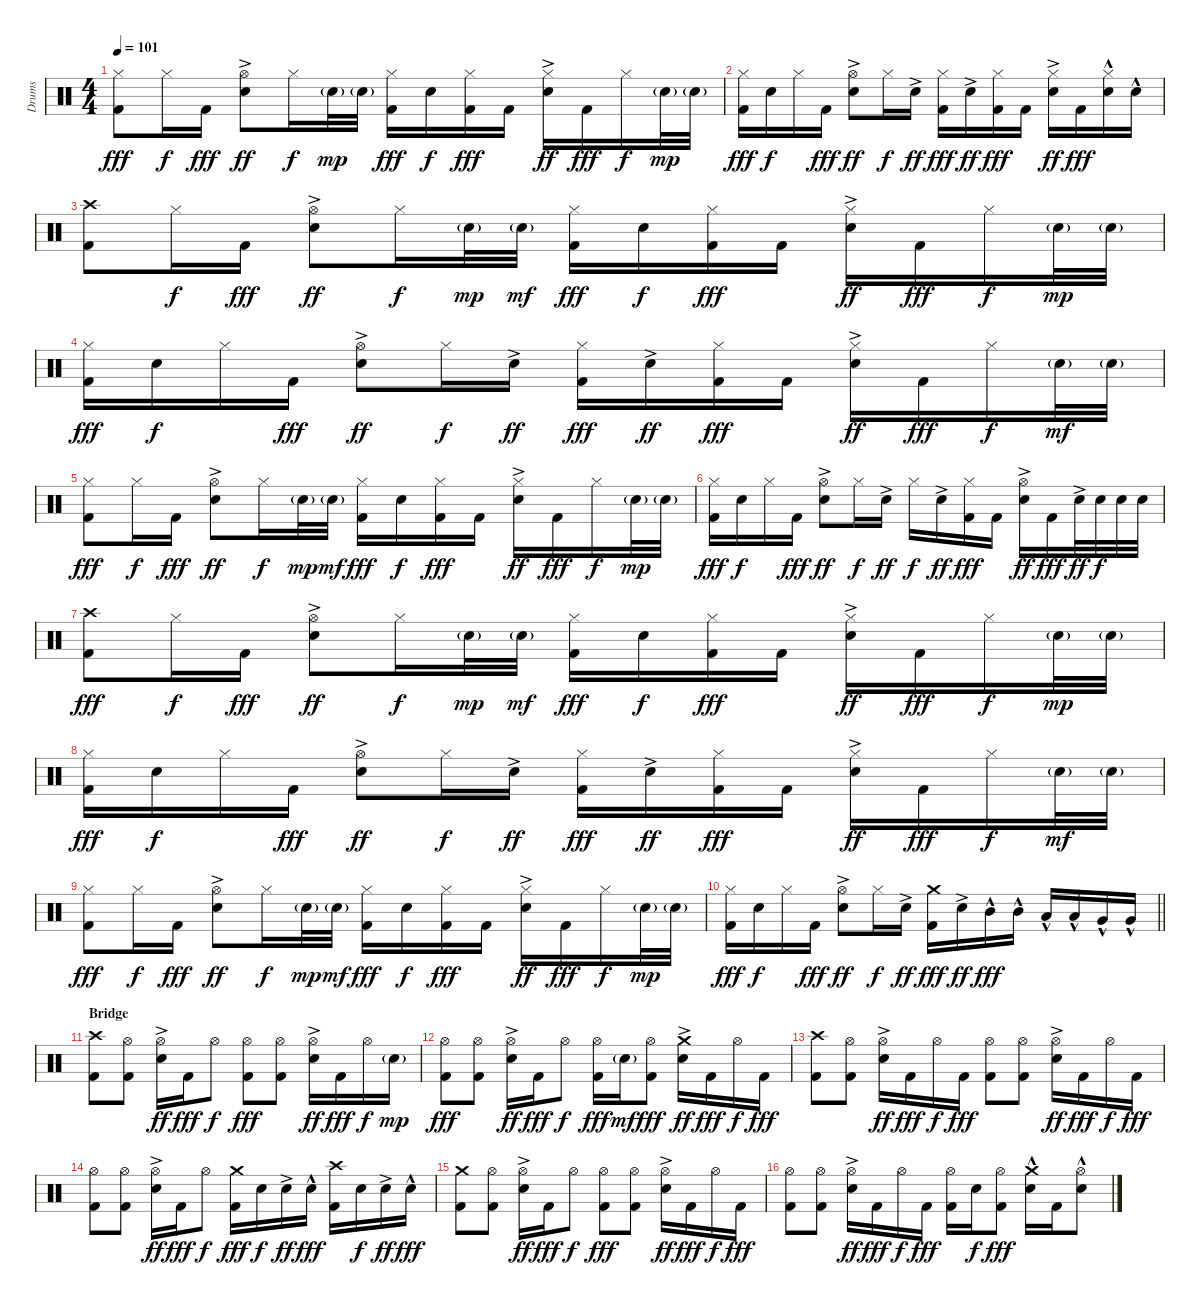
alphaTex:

\track ("Drums" "Drums") {instrument percussion}
\staff {score}
\articulation defaults
\ts (4 4)
\tempo 101
\clef neutral
\ks c
("Hi-Hat (closed)" "Kick (hit) 2").8{dy fff} "Hi-Hat (closed)".16{dy f} "Kick (hit) 2".16{dy fff} ("Hi-Hat (open)" "Snare (hit) 2"{ac}).8{dy ff} "Hi-Hat (closed)".16{dy f} "Snare (hit) 2"{g}.32{dy mp} "Snare (hit) 2"{g}.32 ("Hi-Hat (closed)" "Kick (hit) 2").16{dy fff} "Snare (hit) 2".16{dy f} ("Hi-Hat (closed)" "Kick (hit) 2").16{dy fff} "Kick (hit) 2".16 ("Hi-Hat (closed)" "Snare (hit) 2"{ac}).16{dy ff} "Kick (hit) 2".16{dy fff} "Hi-Hat (closed)".16{dy f} "Snare (hit) 2"{g}.32{dy mp} "Snare (hit) 2"{g}.32 |
("Hi-Hat (closed)" "Kick (hit) 2").16{dy fff} "Snare (hit) 2".16{dy f} "Hi-Hat (closed)".16 "Kick (hit) 2".16{dy fff} ("Hi-Hat (open)" "Snare (hit) 2"{ac}).8{dy ff} "Hi-Hat (closed)".16{dy f} "Snare (hit) 2"{ac}.16{dy ff} ("Hi-Hat (closed)" "Kick (hit) 2").16{dy fff} "Snare (hit) 2"{ac}.16{dy ff} ("Hi-Hat (closed)" "Kick (hit) 2").16{dy fff} "Kick (hit) 2".16 ("Hi-Hat (closed)" "Snare (hit) 2"{ac}).16{dy ff} "Kick (hit) 2".16{dy fff} ("Hi-Hat (closed)" "Snare (hit) 2"{hac}).16 "Snare (hit) 2"{hac}.16 |
("Crash high (hit)" "Kick (hit) 2").8 "Hi-Hat (closed)".16{dy f} "Kick (hit) 2".16{dy fff} ("Hi-Hat (open)" "Snare (hit) 2"{ac}).8{dy ff} "Hi-Hat (closed)".16{dy f} "Snare (hit) 2"{g}.32{dy mp} "Snare (hit) 2"{g}.32{dy mf} ("Hi-Hat (closed)" "Kick (hit) 2").16{dy fff} "Snare (hit) 2".16{dy f} ("Hi-Hat (closed)" "Kick (hit) 2").16{dy fff} "Kick (hit) 2".16 ("Hi-Hat (closed)" "Snare (hit) 2"{ac}).16{dy ff} "Kick (hit) 2".16{dy fff} "Hi-Hat (closed)".16{dy f} "Snare (hit) 2"{g}.32{dy mp} "Snare (hit) 2"{g}.32 |
("Hi-Hat (closed)" "Kick (hit) 2").16{dy fff} "Snare (hit) 2".16{dy f} "Hi-Hat (closed)".16 "Kick (hit) 2".16{dy fff} ("Hi-Hat (open)" "Snare (hit) 2"{ac}).8{dy ff} "Hi-Hat (closed)".16{dy f} "Snare (hit) 2"{ac}.16{dy ff} ("Hi-Hat (closed)" "Kick (hit) 2").16{dy fff} "Snare (hit) 2"{ac}.16{dy ff} ("Hi-Hat (closed)" "Kick (hit) 2").16{dy fff} "Kick (hit) 2".16 ("Hi-Hat (closed)" "Snare (hit) 2"{ac}).16{dy ff} "Kick (hit) 2".16{dy fff} "Hi-Hat (closed)".16{dy f} "Snare (hit) 2"{g}.32{dy mf} "Snare (hit) 2"{g}.32 |
("Hi-Hat (closed)" "Kick (hit) 2").8{dy fff} "Hi-Hat (closed)".16{dy f} "Kick (hit) 2".16{dy fff} ("Hi-Hat (open)" "Snare (hit) 2"{ac}).8{dy ff} "Hi-Hat (closed)".16{dy f} "Snare (hit) 2"{g}.32{dy mp} "Snare (hit) 2"{g}.32{dy mf} ("Hi-Hat (closed)" "Kick (hit) 2").16{dy fff} "Snare (hit) 2".16{dy f} ("Hi-Hat (closed)" "Kick (hit) 2").16{dy fff} "Kick (hit) 2".16 ("Hi-Hat (closed)" "Snare (hit) 2"{ac}).16{dy ff} "Kick (hit) 2".16{dy fff} "Hi-Hat (closed)".16{dy f} "Snare (hit) 2"{g}.32{dy mp} "Snare (hit) 2"{g}.32 |
("Hi-Hat (closed)" "Kick (hit) 2").16{dy fff} "Snare (hit) 2".16{dy f} "Hi-Hat (closed)".16 "Kick (hit) 2".16{dy fff} ("Hi-Hat (open)" "Snare (hit) 2"{ac}).8{dy ff} "Hi-Hat (closed)".16{dy f} "Snare (hit) 2"{ac}.16{dy ff} "Hi-Hat (closed)".16{dy f} "Snare (hit) 2"{ac}.16{dy ff} ("Hi-Hat (closed)" "Kick (hit) 2").16{dy fff} "Kick (hit) 2".16 ("Hi-Hat (open)" "Snare (hit) 2"{ac}).16{dy ff} "Kick (hit) 2".16{dy fff} "Snare (hit) 2"{ac}.32{dy ff} "Snare (hit) 2".32{dy f} "Snare (hit) 2".32 "Snare (hit) 2".32 |
("Crash high (hit)" "Kick (hit) 2").8{dy fff} "Hi-Hat (closed)".16{dy f} "Kick (hit) 2".16{dy fff} ("Hi-Hat (open)" "Snare (hit) 2"{ac}).8{dy ff} "Hi-Hat (closed)".16{dy f} "Snare (hit) 2"{g}.32{dy mp} "Snare (hit) 2"{g}.32{dy mf} ("Hi-Hat (closed)" "Kick (hit) 2").16{dy fff} "Snare (hit) 2".16{dy f} ("Hi-Hat (closed)" "Kick (hit) 2").16{dy fff} "Kick (hit) 2".16 ("Hi-Hat (closed)" "Snare (hit) 2"{ac}).16{dy ff} "Kick (hit) 2".16{dy fff} "Hi-Hat (closed)".16{dy f} "Snare (hit) 2"{g}.32{dy mp} "Snare (hit) 2"{g}.32 |
("Hi-Hat (closed)" "Kick (hit) 2").16{dy fff} "Snare (hit) 2".16{dy f} "Hi-Hat (closed)".16 "Kick (hit) 2".16{dy fff} ("Hi-Hat (open)" "Snare (hit) 2"{ac}).8{dy ff} "Hi-Hat (closed)".16{dy f} "Snare (hit) 2"{ac}.16{dy ff} ("Hi-Hat (closed)" "Kick (hit) 2").16{dy fff} "Snare (hit) 2"{ac}.16{dy ff} ("Hi-Hat (closed)" "Kick (hit) 2").16{dy fff} "Kick (hit) 2".16 ("Hi-Hat (closed)" "Snare (hit) 2"{ac}).16{dy ff} "Kick (hit) 2".16{dy fff} "Hi-Hat (closed)".16{dy f} "Snare (hit) 2"{g}.32{dy mf} "Snare (hit) 2"{g}.32 |
("Hi-Hat (closed)" "Kick (hit) 2").8{dy fff} "Hi-Hat (closed)".16{dy f} "Kick (hit) 2".16{dy fff} ("Hi-Hat (open)" "Snare (hit) 2"{ac}).8{dy ff} "Hi-Hat (closed)".16{dy f} "Snare (hit) 2"{g}.32{dy mp} "Snare (hit) 2"{g}.32{dy mf} ("Hi-Hat (closed)" "Kick (hit) 2").16{dy fff} "Snare (hit) 2".16{dy f} ("Hi-Hat (closed)" "Kick (hit) 2").16{dy fff} "Kick (hit) 2".16 ("Hi-Hat (closed)" "Snare (hit) 2"{ac}).16{dy ff} "Kick (hit) 2".16{dy fff} "Hi-Hat (closed)".16{dy f} "Snare (hit) 2"{g}.32{dy mp} "Snare (hit) 2"{g}.32 |
\barLineRight lightlight
("Hi-Hat (closed)" "Kick (hit) 2").16{dy fff} "Snare (hit) 2".16{dy f} "Hi-Hat (closed)".16 "Kick (hit) 2".16{dy fff} ("Hi-Hat (open)" "Snare (hit) 2"{ac}).8{dy ff} "Hi-Hat (closed)".16{dy f} "Snare (hit) 2"{ac}.16{dy ff} ("Crash medium (hit)" "Kick (hit) 2").16{dy fff} "Snare (hit) 2"{ac}.16{dy ff} "Mid Tom (hit)"{hac}.16{dy fff} "Mid Tom (hit)"{hac}.16 "Low Tom (hit)"{hac}.16 "Low Tom (hit)"{hac}.16 "Very Low Tom (hit)"{hac}.16 "Very Low Tom (hit)"{hac}.16 |
\section ("" "Bridge")
("Crash high (hit)" "Kick (hit) 2").8 ("Hi-Hat (open)" "Kick (hit) 2").8 ("Hi-Hat (open)" "Snare (hit) 2"{ac}).16{dy ff} "Kick (hit) 2".16{dy fff} "Hi-Hat (open)".8{dy f} ("Hi-Hat (open)" "Kick (hit) 2").8{dy fff} ("Hi-Hat (open)" "Kick (hit) 2").8 ("Hi-Hat (open)" "Snare (hit) 2"{ac}).16{dy ff} "Kick (hit) 2".16{dy fff} "Hi-Hat (open)".16{dy f} "Snare (hit) 2"{g}.16{dy mp} |
("Hi-Hat (open)" "Kick (hit) 2").8{dy fff} ("Hi-Hat (open)" "Kick (hit) 2").8 ("Hi-Hat (open)" "Snare (hit) 2"{ac}).16{dy ff} "Kick (hit) 2".16{dy fff} "Hi-Hat (open)".8{dy f} ("Hi-Hat (open)" "Kick (hit) 2").16{dy fff} "Snare (hit) 2"{g}.16{dy mf} ("Hi-Hat (open)" "Kick (hit) 2").8{dy fff} ("Crash medium (hit)" "Snare (hit) 2"{ac}).16{dy ff} "Kick (hit) 2".16{dy fff} "Hi-Hat (open)".16{dy f} "Kick (hit) 2".16{dy fff} |
("Crash high (hit)" "Kick (hit) 2").8 ("Hi-Hat (open)" "Kick (hit) 2").8 ("Hi-Hat (open)" "Snare (hit) 2"{ac}).16{dy ff} "Kick (hit) 2".16{dy fff} "Hi-Hat (open)".16{dy f} "Kick (hit) 2".16{dy fff} ("Hi-Hat (open)" "Kick (hit) 2").8 ("Hi-Hat (open)" "Kick (hit) 2").8 ("Hi-Hat (open)" "Snare (hit) 2"{ac}).16{dy ff} "Kick (hit) 2".16{dy fff} "Hi-Hat (open)".16{dy f} "Kick (hit) 2".16{dy fff} |
("Hi-Hat (open)" "Kick (hit) 2").8 ("Hi-Hat (open)" "Kick (hit) 2").8 ("Hi-Hat (open)" "Snare (hit) 2"{ac}).16{dy ff} "Kick (hit) 2".16{dy fff} "Hi-Hat (open)".8{dy f} ("Crash medium (hit)" "Kick (hit) 2").16{dy fff} "Snare (hit) 2".16{dy f} "Snare (hit) 2"{ac}.16{dy ff} "Snare (hit) 2"{hac}.16{dy fff} ("Crash high (hit)" "Kick (hit) 2").16 "Snare (hit) 2".16{dy f} "Snare (hit) 2"{ac}.16{dy ff} "Snare (hit) 2"{hac}.16{dy fff} |
("Crash medium (hit)" "Kick (hit) 2").8 ("Hi-Hat (open)" "Kick (hit) 2").8 ("Hi-Hat (open)" "Snare (hit) 2"{ac}).16{dy ff} "Kick (hit) 2".16{dy fff} "Hi-Hat (open)".8{dy f} ("Hi-Hat (open)" "Kick (hit) 2").8{dy fff} ("Hi-Hat (open)" "Kick (hit) 2").8 ("Hi-Hat (open)" "Snare (hit) 2"{ac}).16{dy ff} "Kick (hit) 2".16{dy fff} "Hi-Hat (open)".16{dy f} "Kick (hit) 2".16{dy fff} |
("Hi-Hat (open)" "Kick (hit) 2").8 ("Hi-Hat (open)" "Kick (hit) 2").8 ("Hi-Hat (open)" "Snare (hit) 2"{ac}).16{dy ff} "Kick (hit) 2".16{dy fff} "Hi-Hat (open)".16{dy f} "Kick (hit) 2".16{dy fff} ("Hi-Hat (open)" "Kick (hit) 2").16 "Snare (hit) 2".16{dy f} ("Hi-Hat (open)" "Kick (hit) 2").8{dy fff} ("Crash medium (hit)" "Snare (hit) 2"{hac}).16 "Kick (hit) 2".16 ("Hi-Hat (open)" "Snare (hit) 2"{hac}).8
